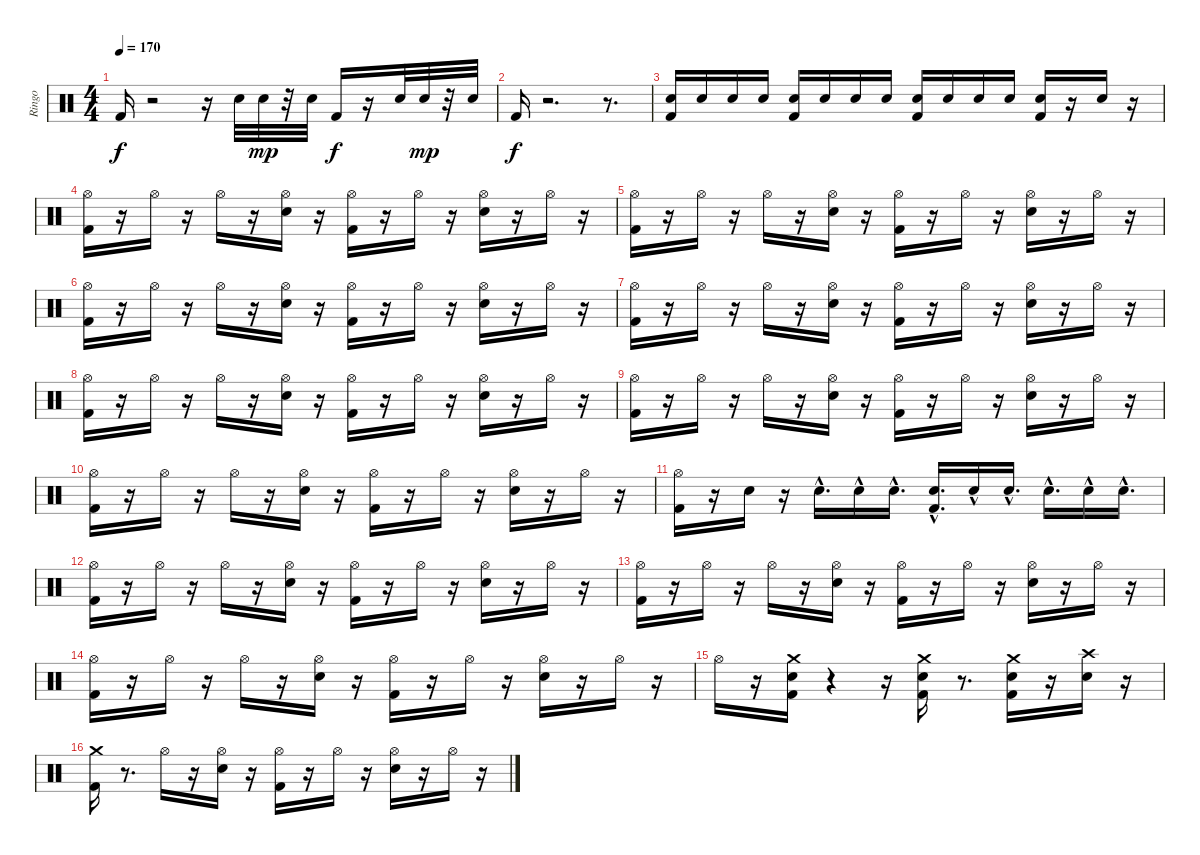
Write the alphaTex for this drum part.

\track ("Ringo" "Ringo") {instrument percussion}
\staff {score}
\articulation defaults
\ts (4 4)
\tempo 170
\clef neutral
\ks c "Kick (hit) 2".16{dy f}
r.2 r.16 "Snare (hit) 2".32 "Snare (hit) 2".32{dy mp} r.32 "Snare (hit) 2".32 "Kick (hit) 2".16{dy f} r.16 "Snare (hit) 2".32 "Snare (hit) 2".32{dy mp} r.32 "Snare (hit) 2".32 |
"Kick (hit) 2".16{dy f} r.2{d} r.8{d} |
("Snare (hit) 2" "Kick (hit) 2").16 "Snare (hit) 2".16 "Snare (hit) 2".16 "Snare (hit) 2".16 ("Snare (hit) 2" "Kick (hit) 2").16 "Snare (hit) 2".16 "Snare (hit) 2".16 "Snare (hit) 2".16 ("Snare (hit) 2" "Kick (hit) 2").16 "Snare (hit) 2".16 "Snare (hit) 2".16 "Snare (hit) 2".16 ("Snare (hit) 2" "Kick (hit) 2").16 r.16 "Snare (hit) 2".16 r.16 |
("Kick (hit) 2" "Hi-Hat (open)").16 r.16 "Hi-Hat (open)".16 r.16 "Hi-Hat (open)".16 r.16 ("Snare (hit) 2" "Hi-Hat (open)").16 r.16 ("Kick (hit) 2" "Hi-Hat (open)").16 r.16 "Hi-Hat (open)".16 r.16 ("Snare (hit) 2" "Hi-Hat (open)").16 r.16 "Hi-Hat (open)".16 r.16 |
("Hi-Hat (open)" "Kick (hit) 2").16 r.16 "Hi-Hat (open)".16 r.16 "Hi-Hat (open)".16 r.16 ("Hi-Hat (open)" "Snare (hit) 2").16 r.16 ("Hi-Hat (open)" "Kick (hit) 2").16 r.16 "Hi-Hat (open)".16 r.16 ("Hi-Hat (open)" "Snare (hit) 2").16 r.16 "Hi-Hat (open)".16 r.16 |
("Hi-Hat (open)" "Kick (hit) 2").16 r.16 "Hi-Hat (open)".16 r.16 "Hi-Hat (open)".16 r.16 ("Hi-Hat (open)" "Snare (hit) 2").16 r.16 ("Hi-Hat (open)" "Kick (hit) 2").16 r.16 "Hi-Hat (open)".16 r.16 ("Hi-Hat (open)" "Snare (hit) 2").16 r.16 "Hi-Hat (open)".16 r.16 |
("Hi-Hat (open)" "Kick (hit) 2").16 r.16 "Hi-Hat (open)".16 r.16 "Hi-Hat (open)".16 r.16 ("Hi-Hat (open)" "Snare (hit) 2").16 r.16 ("Hi-Hat (open)" "Kick (hit) 2").16 r.16 "Hi-Hat (open)".16 r.16 ("Hi-Hat (open)" "Snare (hit) 2").16 r.16 "Hi-Hat (open)".16 r.16 |
("Hi-Hat (open)" "Kick (hit) 2").16 r.16 "Hi-Hat (open)".16 r.16 "Hi-Hat (open)".16 r.16 ("Hi-Hat (open)" "Snare (hit) 2").16 r.16 ("Hi-Hat (open)" "Kick (hit) 2").16 r.16 "Hi-Hat (open)".16 r.16 ("Hi-Hat (open)" "Snare (hit) 2").16 r.16 "Hi-Hat (open)".16 r.16 |
("Hi-Hat (open)" "Kick (hit) 2").16 r.16 "Hi-Hat (open)".16 r.16 "Hi-Hat (open)".16 r.16 ("Hi-Hat (open)" "Snare (hit) 2").16 r.16 ("Hi-Hat (open)" "Kick (hit) 2").16 r.16 "Hi-Hat (open)".16 r.16 ("Hi-Hat (open)" "Snare (hit) 2").16 r.16 "Hi-Hat (open)".16 r.16 |
("Hi-Hat (open)" "Kick (hit) 2").16 r.16 "Hi-Hat (open)".16 r.16 "Hi-Hat (open)".16 r.16 ("Hi-Hat (open)" "Snare (hit) 2").16 r.16 ("Hi-Hat (open)" "Kick (hit) 2").16 r.16 "Hi-Hat (open)".16 r.16 ("Hi-Hat (open)" "Snare (hit) 2").16 r.16 "Hi-Hat (open)".16 r.16 |
("Kick (hit) 2" "Hi-Hat (open)").16 r.16 "Snare (hit) 2".16 r.16 "Snare (hit) 2"{hac}.16{d} "Snare (hit) 2"{hac}.16 "Snare (hit) 2"{hac}.16{d} ("Snare (hit) 2"{hac} "Kick (hit) 2").16{d} "Snare (hit) 2"{hac}.16 "Snare (hit) 2"{hac}.16{d} "Snare (hit) 2"{hac}.16{d} "Snare (hit) 2"{hac}.16 "Snare (hit) 2"{hac}.16{d} |
("Hi-Hat (open)" "Kick (hit) 2").16 r.16 "Hi-Hat (open)".16 r.16 "Hi-Hat (open)".16 r.16 ("Hi-Hat (open)" "Snare (hit) 2").16 r.16 ("Hi-Hat (open)" "Kick (hit) 2").16 r.16 "Hi-Hat (open)".16 r.16 ("Hi-Hat (open)" "Snare (hit) 2").16 r.16 "Hi-Hat (open)".16 r.16 |
("Hi-Hat (open)" "Kick (hit) 2").16 r.16 "Hi-Hat (open)".16 r.16 "Hi-Hat (open)".16 r.16 ("Hi-Hat (open)" "Snare (hit) 2").16 r.16 ("Hi-Hat (open)" "Kick (hit) 2").16 r.16 "Hi-Hat (open)".16 r.16 ("Hi-Hat (open)" "Snare (hit) 2").16 r.16 "Hi-Hat (open)".16 r.16 |
("Hi-Hat (open)" "Kick (hit) 2").16 r.16 "Hi-Hat (open)".16 r.16 "Hi-Hat (open)".16 r.16 ("Hi-Hat (open)" "Snare (hit) 2").16 r.16 ("Hi-Hat (open)" "Kick (hit) 2").16 r.16 "Hi-Hat (open)".16 r.16 ("Hi-Hat (open)" "Snare (hit) 2").16 r.16 "Hi-Hat (open)".16 r.16 |
"Hi-Hat (open)".16 r.16 ("Crash medium (hit)" "Snare (hit) 2" "Kick (hit) 2").16 r.4 r.16 ("Crash medium (hit)" "Snare (hit) 2" "Kick (hit) 2").16 r.8{d} ("Crash medium (hit)" "Snare (hit) 2" "Kick (hit) 2").16 r.16 ("Snare (hit) 2" "Crash high (hit)").16 r.16 |
("Crash medium (hit)" "Kick (hit) 2").16 r.8{d} "Hi-Hat (open)".16 r.16 ("Hi-Hat (open)" "Snare (hit) 2").16 r.16 ("Hi-Hat (open)" "Kick (hit) 2").16 r.16 "Hi-Hat (open)".16 r.16 ("Hi-Hat (open)" "Snare (hit) 2").16 r.16 "Hi-Hat (open)".16 r.16
